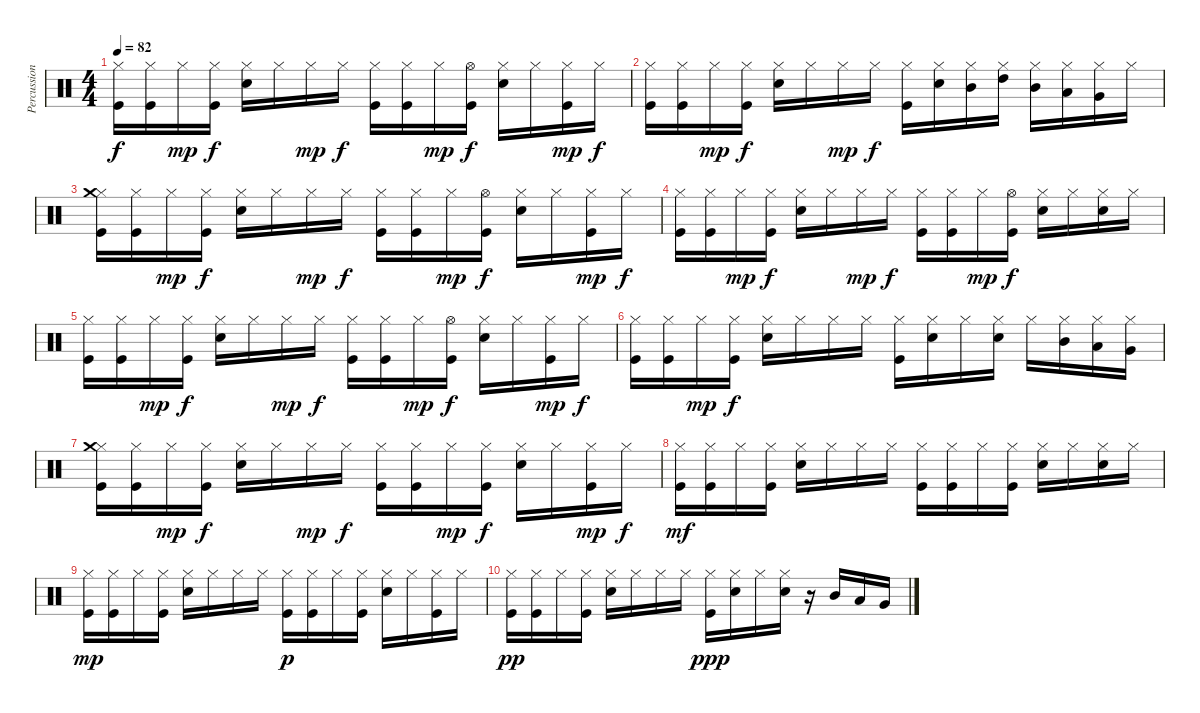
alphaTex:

\track ("Percussion" "Percussion") {instrument percussion}
\staff {score}
\articulation defaults
\ts (4 4)
\tempo 82
\clef neutral
\ks c
("Kick (hit)" "Hi-Hat (closed)").16{dy f} ("Kick (hit)" "Hi-Hat (closed)").16 "Hi-Hat (closed)".16{dy mp} ("Kick (hit)" "Hi-Hat (closed)").16{dy f} ("Electric Snare (hit)" "Hi-Hat (closed)").16 "Hi-Hat (closed)".16 "Hi-Hat (closed)".16{dy mp} "Hi-Hat (closed)".16{dy f} ("Kick (hit)" "Hi-Hat (closed)").16 ("Kick (hit)" "Hi-Hat (closed)").16 "Hi-Hat (closed)".16{dy mp} ("Kick (hit)" "Hi-Hat (open)").16{dy f} ("Electric Snare (hit)" "Hi-Hat (closed)").16 "Hi-Hat (closed)".16 ("Kick (hit)" "Hi-Hat (closed)").16{dy mp} "Hi-Hat (closed)".16{dy f} |
("Kick (hit)" "Hi-Hat (closed)").16 ("Kick (hit)" "Hi-Hat (closed)").16 "Hi-Hat (closed)".16{dy mp} ("Kick (hit)" "Hi-Hat (closed)").16{dy f} ("Electric Snare (hit)" "Hi-Hat (closed)").16 "Hi-Hat (closed)".16 "Hi-Hat (closed)".16{dy mp} "Hi-Hat (closed)".16{dy f} ("Kick (hit)" "Hi-Hat (closed)").16 ("Electric Snare (hit)" "Hi-Hat (closed)").16 ("Mid Tom (hit)" "Hi-Hat (closed)").16 ("High Tom (hit)" "Hi-Hat (closed)").16 ("Mid Tom (hit)" "Hi-Hat (closed)").16 ("Low Tom (hit)" "Hi-Hat (closed)").16 ("Very Low Tom (hit)" "Hi-Hat (closed)").16 "Hi-Hat (closed)".16 |
("Kick (hit)" "Hi-Hat (closed)" "Crash medium (hit)").16 ("Kick (hit)" "Hi-Hat (closed)").16 "Hi-Hat (closed)".16{dy mp} ("Kick (hit)" "Hi-Hat (closed)").16{dy f} ("Electric Snare (hit)" "Hi-Hat (closed)").16 "Hi-Hat (closed)".16 "Hi-Hat (closed)".16{dy mp} "Hi-Hat (closed)".16{dy f} ("Kick (hit)" "Hi-Hat (closed)").16 ("Kick (hit)" "Hi-Hat (closed)").16 "Hi-Hat (closed)".16{dy mp} ("Kick (hit)" "Hi-Hat (open)").16{dy f} ("Electric Snare (hit)" "Hi-Hat (closed)").16 "Hi-Hat (closed)".16 ("Kick (hit)" "Hi-Hat (closed)").16{dy mp} "Hi-Hat (closed)".16{dy f} |
("Kick (hit)" "Hi-Hat (closed)").16 ("Kick (hit)" "Hi-Hat (closed)").16 "Hi-Hat (closed)".16{dy mp} ("Kick (hit)" "Hi-Hat (closed)").16{dy f} ("Electric Snare (hit)" "Hi-Hat (closed)").16 "Hi-Hat (closed)".16 "Hi-Hat (closed)".16{dy mp} "Hi-Hat (closed)".16{dy f} ("Kick (hit)" "Hi-Hat (closed)").16 ("Kick (hit)" "Hi-Hat (closed)").16 "Hi-Hat (closed)".16{dy mp} ("Kick (hit)" "Hi-Hat (open)").16{dy f} ("Electric Snare (hit)" "Hi-Hat (closed)").16 "Hi-Hat (closed)".16 ("Electric Snare (hit)" "Hi-Hat (closed)").16 "Hi-Hat (closed)".16 |
("Kick (hit)" "Hi-Hat (closed)").16 ("Kick (hit)" "Hi-Hat (closed)").16 "Hi-Hat (closed)".16{dy mp} ("Kick (hit)" "Hi-Hat (closed)").16{dy f} ("Electric Snare (hit)" "Hi-Hat (closed)").16 "Hi-Hat (closed)".16 "Hi-Hat (closed)".16{dy mp} "Hi-Hat (closed)".16{dy f} ("Kick (hit)" "Hi-Hat (closed)").16 ("Kick (hit)" "Hi-Hat (closed)").16 "Hi-Hat (closed)".16{dy mp} ("Kick (hit)" "Hi-Hat (open)").16{dy f} ("Electric Snare (hit)" "Hi-Hat (closed)").16 "Hi-Hat (closed)".16 ("Kick (hit)" "Hi-Hat (closed)").16{dy mp} "Hi-Hat (closed)".16{dy f} |
("Kick (hit)" "Hi-Hat (closed)").16 ("Kick (hit)" "Hi-Hat (closed)").16 "Hi-Hat (closed)".16{dy mp} ("Kick (hit)" "Hi-Hat (closed)").16{dy f} ("Electric Snare (hit)" "Hi-Hat (closed)").16 "Hi-Hat (closed)".16 "Hi-Hat (closed)".16 "Hi-Hat (closed)".16 ("Kick (hit)" "Hi-Hat (closed)").16 ("Electric Snare (hit)" "Hi-Hat (closed)").16 "Hi-Hat (closed)".16 ("Electric Snare (hit)" "Hi-Hat (closed)").16 "Hi-Hat (closed)".16 ("Mid Tom (hit)" "Hi-Hat (closed)").16 ("Low Tom (hit)" "Hi-Hat (closed)").16 ("Very Low Tom (hit)" "Hi-Hat (closed)").16 |
("Kick (hit)" "Hi-Hat (closed)" "Crash medium (hit)").16 ("Kick (hit)" "Hi-Hat (closed)").16 "Hi-Hat (closed)".16{dy mp} ("Kick (hit)" "Hi-Hat (closed)").16{dy f} ("Electric Snare (hit)" "Hi-Hat (closed)").16 "Hi-Hat (closed)".16 "Hi-Hat (closed)".16{dy mp} "Hi-Hat (closed)".16{dy f} ("Kick (hit)" "Hi-Hat (closed)").16 ("Kick (hit)" "Hi-Hat (closed)").16 "Hi-Hat (closed)".16{dy mp} ("Kick (hit)" "Hi-Hat (closed)").16{dy f} ("Electric Snare (hit)" "Hi-Hat (closed)").16 "Hi-Hat (closed)".16 ("Kick (hit)" "Hi-Hat (closed)").16{dy mp} "Hi-Hat (closed)".16{dy f} |
("Kick (hit)" "Hi-Hat (closed)").16{dy mf} ("Kick (hit)" "Hi-Hat (closed)").16 "Hi-Hat (closed)".16 ("Kick (hit)" "Hi-Hat (closed)").16 ("Electric Snare (hit)" "Hi-Hat (closed)").16 "Hi-Hat (closed)".16 "Hi-Hat (closed)".16 "Hi-Hat (closed)".16 ("Kick (hit)" "Hi-Hat (closed)").16 ("Kick (hit)" "Hi-Hat (closed)").16 "Hi-Hat (closed)".16 ("Kick (hit)" "Hi-Hat (closed)").16 ("Electric Snare (hit)" "Hi-Hat (closed)").16 "Hi-Hat (closed)".16 ("Electric Snare (hit)" "Hi-Hat (closed)").16 "Hi-Hat (closed)".16 |
("Kick (hit)" "Hi-Hat (closed)").16{dy mp} ("Kick (hit)" "Hi-Hat (closed)").16 "Hi-Hat (closed)".16 ("Kick (hit)" "Hi-Hat (closed)").16 ("Electric Snare (hit)" "Hi-Hat (closed)").16 "Hi-Hat (closed)".16 "Hi-Hat (closed)".16 "Hi-Hat (closed)".16 ("Kick (hit)" "Hi-Hat (closed)").16{dy p} ("Kick (hit)" "Hi-Hat (closed)").16 "Hi-Hat (closed)".16 ("Kick (hit)" "Hi-Hat (closed)").16 ("Electric Snare (hit)" "Hi-Hat (closed)").16 "Hi-Hat (closed)".16 ("Kick (hit)" "Hi-Hat (closed)").16 "Hi-Hat (closed)".16 |
("Kick (hit)" "Hi-Hat (closed)").16{dy pp} ("Kick (hit)" "Hi-Hat (closed)").16 "Hi-Hat (closed)".16 ("Kick (hit)" "Hi-Hat (closed)").16 ("Electric Snare (hit)" "Hi-Hat (closed)").16 "Hi-Hat (closed)".16 "Hi-Hat (closed)".16 "Hi-Hat (closed)".16 ("Kick (hit)" "Hi-Hat (closed)").16{dy ppp} ("Electric Snare (hit)" "Hi-Hat (closed)").16 "Hi-Hat (closed)".16 ("Electric Snare (hit)" "Hi-Hat (closed)").16 r.16 "Mid Tom (hit)".16 "Low Tom (hit)".16 "Very Low Tom (hit)".16
